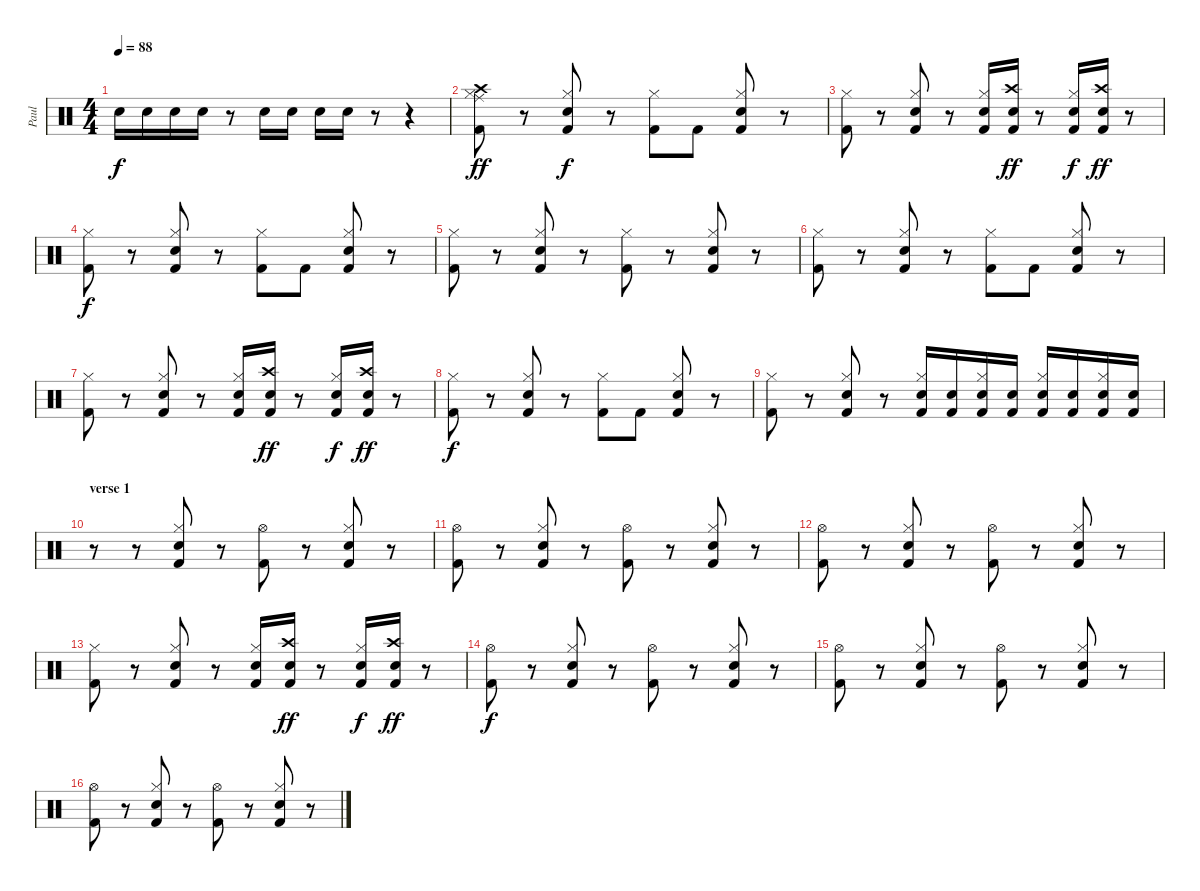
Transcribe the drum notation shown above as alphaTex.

\track ("Paul" "Paul") {instrument percussion}
\staff {score}
\articulation defaults
\ts (4 4)
\tempo 88
\clef neutral
\ks c "Snare (hit) 2".16{dy f} "Snare (hit) 2".16 "Snare (hit) 2".16 "Snare (hit) 2".16
r.8 "Snare (hit) 2".16 "Snare (hit) 2".16 "Snare (hit) 2".16 "Snare (hit) 2".16 r.8 r.4 |
("Hi-Hat (closed)" "Crash high (hit)" "Ride (middle)" "Kick (hit) 2").8{dy ff} r.8 ("Snare (hit) 2" "Hi-Hat (closed)" "Kick (hit) 2").8{dy f} r.8 ("Hi-Hat (closed)" "Kick (hit) 2").8 "Kick (hit) 2".8 ("Snare (hit) 2" "Hi-Hat (closed)" "Kick (hit) 2").8 r.8 |
("Hi-Hat (closed)" "Kick (hit) 2").8 r.8 ("Snare (hit) 2" "Hi-Hat (closed)" "Kick (hit) 2").8 r.8 ("Snare (hit) 2" "Hi-Hat (closed)" "Kick (hit) 2").16 ("Snare (hit) 2" "Crash high (hit)" "Kick (hit) 2").16{dy ff} r.8 ("Snare (hit) 2" "Hi-Hat (closed)" "Kick (hit) 2").16{dy f} ("Snare (hit) 2" "Crash high (hit)" "Kick (hit) 2").16{dy ff} r.8 |
("Hi-Hat (closed)" "Kick (hit) 2").8{dy f} r.8 ("Snare (hit) 2" "Hi-Hat (closed)" "Kick (hit) 2").8 r.8 ("Hi-Hat (closed)" "Kick (hit) 2").8 "Kick (hit) 2".8 ("Snare (hit) 2" "Hi-Hat (closed)" "Kick (hit) 2").8 r.8 |
("Hi-Hat (closed)" "Kick (hit) 2").8 r.8 ("Snare (hit) 2" "Hi-Hat (closed)" "Kick (hit) 2").8 r.8 ("Hi-Hat (closed)" "Kick (hit) 2").8 r.8 ("Snare (hit) 2" "Hi-Hat (closed)" "Kick (hit) 2").8 r.8 |
("Hi-Hat (closed)" "Kick (hit) 2").8 r.8 ("Snare (hit) 2" "Hi-Hat (closed)" "Kick (hit) 2").8 r.8 ("Hi-Hat (closed)" "Kick (hit) 2").8 "Kick (hit) 2".8 ("Snare (hit) 2" "Hi-Hat (closed)" "Kick (hit) 2").8 r.8 |
("Hi-Hat (closed)" "Kick (hit) 2").8 r.8 ("Snare (hit) 2" "Hi-Hat (closed)" "Kick (hit) 2").8 r.8 ("Snare (hit) 2" "Hi-Hat (closed)" "Kick (hit) 2").16 ("Snare (hit) 2" "Crash high (hit)" "Kick (hit) 2").16{dy ff} r.8 ("Snare (hit) 2" "Hi-Hat (closed)" "Kick (hit) 2").16{dy f} ("Snare (hit) 2" "Crash high (hit)" "Kick (hit) 2").16{dy ff} r.8 |
("Hi-Hat (closed)" "Kick (hit) 2").8{dy f} r.8 ("Snare (hit) 2" "Hi-Hat (closed)" "Kick (hit) 2").8 r.8 ("Hi-Hat (closed)" "Kick (hit) 2").8 "Kick (hit) 2".8 ("Snare (hit) 2" "Hi-Hat (closed)" "Kick (hit) 2").8 r.8 |
("Hi-Hat (closed)" "Kick (hit) 2").8 r.8 ("Snare (hit) 2" "Hi-Hat (closed)" "Kick (hit) 2").8 r.8 ("Snare (hit) 2" "Hi-Hat (closed)" "Kick (hit) 2").16 ("Snare (hit) 2" "Kick (hit) 2").16 ("Snare (hit) 2" "Hi-Hat (closed)" "Kick (hit) 2").16 ("Snare (hit) 2" "Kick (hit) 2").16 ("Snare (hit) 2" "Hi-Hat (closed)" "Kick (hit) 2").16 ("Snare (hit) 2" "Kick (hit) 2").16 ("Snare (hit) 2" "Hi-Hat (closed)" "Kick (hit) 2").16 ("Snare (hit) 2" "Kick (hit) 2").16 |
\section ("" "verse 1")
r.8 r.8 ("Snare (hit) 2" "Hi-Hat (closed)" "Kick (hit) 2").8 r.8 ("Hi-Hat (open)" "Kick (hit) 2").8 r.8 ("Snare (hit) 2" "Hi-Hat (closed)" "Kick (hit) 2").8 r.8 |
("Hi-Hat (open)" "Kick (hit) 2").8 r.8 ("Snare (hit) 2" "Hi-Hat (closed)" "Kick (hit) 2").8 r.8 ("Hi-Hat (open)" "Kick (hit) 2").8 r.8 ("Snare (hit) 2" "Hi-Hat (closed)" "Kick (hit) 2").8 r.8 |
("Hi-Hat (open)" "Kick (hit) 2").8 r.8 ("Snare (hit) 2" "Hi-Hat (closed)" "Kick (hit) 2").8 r.8 ("Hi-Hat (open)" "Kick (hit) 2").8 r.8 ("Snare (hit) 2" "Hi-Hat (closed)" "Kick (hit) 2").8 r.8 |
("Hi-Hat (closed)" "Kick (hit) 2").8 r.8 ("Snare (hit) 2" "Hi-Hat (closed)" "Kick (hit) 2").8 r.8 ("Snare (hit) 2" "Hi-Hat (closed)" "Kick (hit) 2").16 ("Snare (hit) 2" "Crash high (hit)" "Kick (hit) 2").16{dy ff} r.8 ("Snare (hit) 2" "Hi-Hat (closed)" "Kick (hit) 2").16{dy f} ("Snare (hit) 2" "Crash high (hit)" "Kick (hit) 2").16{dy ff} r.8 |
("Hi-Hat (open)" "Kick (hit) 2").8{dy f} r.8 ("Snare (hit) 2" "Hi-Hat (closed)" "Kick (hit) 2").8 r.8 ("Hi-Hat (open)" "Kick (hit) 2").8 r.8 ("Snare (hit) 2" "Hi-Hat (closed)" "Kick (hit) 2").8 r.8 |
("Hi-Hat (open)" "Kick (hit) 2").8 r.8 ("Snare (hit) 2" "Hi-Hat (closed)" "Kick (hit) 2").8 r.8 ("Hi-Hat (open)" "Kick (hit) 2").8 r.8 ("Snare (hit) 2" "Hi-Hat (closed)" "Kick (hit) 2").8 r.8 |
("Hi-Hat (open)" "Kick (hit) 2").8 r.8 ("Snare (hit) 2" "Hi-Hat (closed)" "Kick (hit) 2").8 r.8 ("Hi-Hat (open)" "Kick (hit) 2").8 r.8 ("Snare (hit) 2" "Hi-Hat (closed)" "Kick (hit) 2").8 r.8
